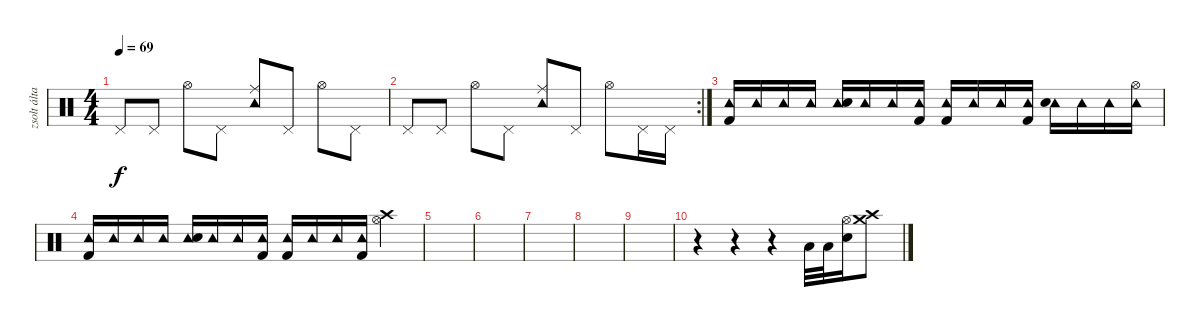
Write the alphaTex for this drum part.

\track ("zsolt által javított!!!!" "zsolt álta") {instrument percussion}
\staff {score}
\articulation defaults
\ts (4 4)
\tempo 69
\clef neutral
\ks c "Pedal Hi-Hat (hit)".8{dy f} "Pedal Hi-Hat (hit)".8 "Hi-Hat (open)".8 "Pedal Hi-Hat (hit)".8
("Ride (middle)" "Tambourine (hit)").8 "Pedal Hi-Hat (hit)".8 "Hi-Hat (open)".8 "Pedal Hi-Hat (hit)".8 |
\rc 2 "Pedal Hi-Hat (hit)".8 "Pedal Hi-Hat (hit)".8 "Hi-Hat (open)".8 "Pedal Hi-Hat (hit)".8
("Ride (middle)" "Tambourine (hit)").8 "Pedal Hi-Hat (hit)".8 "Hi-Hat (open)".8 "Pedal Hi-Hat (hit)".16 "Pedal Hi-Hat (hit)".16 |
("Tambourine (hit)" "Kick (hit) 2").16 "Tambourine (hit)".16 "Tambourine (hit)".16 "Tambourine (hit)".16 ("Tambourine (hit)" "Snare (hit) 2").16 "Tambourine (hit)".16 "Tambourine (hit)".16 ("Tambourine (hit)" "Kick (hit) 2").16 ("Tambourine (hit)" "Kick (hit) 2").16 "Tambourine (hit)".16 "Tambourine (hit)".16 ("Tambourine (hit)" "Kick (hit) 2").16 ("Tambourine (hit)" "Snare (hit) 2").16 "Tambourine (hit)".16 "Tambourine (hit)".16 ("Tambourine (hit)" "Hi-Hat (open)").16 |
("Tambourine (hit)" "Kick (hit) 2").16 "Tambourine (hit)".16 "Tambourine (hit)".16 "Tambourine (hit)".16 ("Tambourine (hit)" "Snare (hit) 2").16 "Tambourine (hit)".16 "Tambourine (hit)".16 ("Tambourine (hit)" "Kick (hit) 2").16 ("Tambourine (hit)" "Kick (hit) 2").16 "Tambourine (hit)".16 "Tambourine (hit)".16 ("Tambourine (hit)" "Kick (hit) 2").16 ("Hi-Hat (open)" "Crash high (hit)").4 |
|
|
|
|
|
r.4 r.4 r.4 "Low Tom (hit)".32 "Low Tom (hit)".32 ("Hi-Hat (open)" "Snare (hit) 2").16 ("Crash medium (hit)" "Crash high (hit)").8
